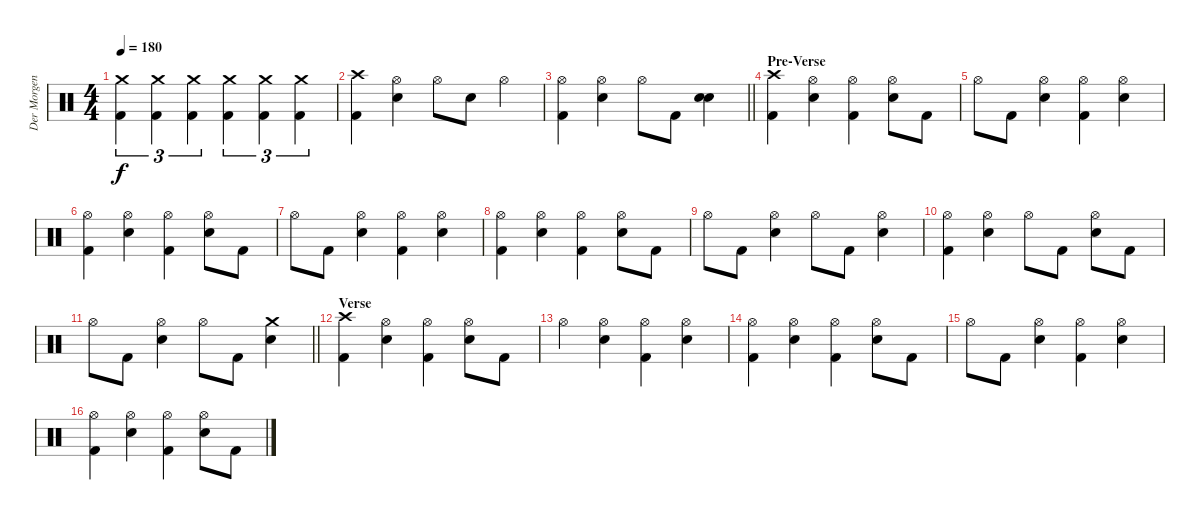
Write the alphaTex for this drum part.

\track ("Der Morgenstern" "Der Morgen") {instrument percussion}
\staff {score}
\articulation defaults
\ts (4 4)
\tempo 180
\clef neutral
\ks c
("Crash medium (hit)" "Kick (hit) 2").4{tu (3 2) dy f} ("Crash medium (hit)" "Kick (hit) 2").4{tu (3 2)} ("Crash medium (hit)" "Kick (hit) 2").4{tu (3 2)} ("Crash medium (hit)" "Kick (hit) 2").4{tu (3 2)} ("Crash medium (hit)" "Kick (hit) 2").4{tu (3 2)} ("Crash medium (hit)" "Kick (hit) 2").4{tu (3 2)} |
("Crash high (hit)" "Kick (hit) 2").4 ("Hi-Hat (open)" "Electric Snare (hit)").4 "Hi-Hat (open)".8 "Electric Snare (hit)".8 "Hi-Hat (open)".4 |
\barLineRight lightlight
("Hi-Hat (open)" "Kick (hit) 2").4 ("Hi-Hat (open)" "Electric Snare (hit)").4 "Hi-Hat (open)".8 "Kick (hit) 2".8 ("Electric Snare (hit)" "Electric Snare (hit)").4 |
\section ("" "Pre-Verse")
("Crash high (hit)" "Kick (hit) 2").4 ("Hi-Hat (open)" "Electric Snare (hit)").4 ("Hi-Hat (open)" "Kick (hit) 2").4 ("Hi-Hat (open)" "Electric Snare (hit)").8 "Kick (hit) 2".8 |
"Hi-Hat (open)".8 "Kick (hit) 2".8 ("Hi-Hat (open)" "Electric Snare (hit)").4 ("Hi-Hat (open)" "Kick (hit) 2").4 ("Hi-Hat (open)" "Electric Snare (hit)").4 |
("Hi-Hat (open)" "Kick (hit) 2").4 ("Hi-Hat (open)" "Electric Snare (hit)").4 ("Hi-Hat (open)" "Kick (hit) 2").4 ("Hi-Hat (open)" "Electric Snare (hit)").8 "Kick (hit) 2".8 |
"Hi-Hat (open)".8 "Kick (hit) 2".8 ("Hi-Hat (open)" "Electric Snare (hit)").4 ("Hi-Hat (open)" "Kick (hit) 2").4 ("Hi-Hat (open)" "Electric Snare (hit)").4 |
("Hi-Hat (open)" "Kick (hit) 2").4 ("Hi-Hat (open)" "Electric Snare (hit)").4 ("Hi-Hat (open)" "Kick (hit) 2").4 ("Hi-Hat (open)" "Electric Snare (hit)").8 "Kick (hit) 2".8 |
"Hi-Hat (open)".8 "Kick (hit) 2".8 ("Hi-Hat (open)" "Electric Snare (hit)").4 "Hi-Hat (open)".8 "Kick (hit) 2".8 ("Hi-Hat (open)" "Electric Snare (hit)").4 |
("Hi-Hat (open)" "Kick (hit) 2").4 ("Hi-Hat (open)" "Electric Snare (hit)").4 "Hi-Hat (open)".8 "Kick (hit) 2".8 ("Hi-Hat (open)" "Electric Snare (hit)").8 "Kick (hit) 2".8 |
\barLineRight lightlight "Hi-Hat (open)".8 "Kick (hit) 2".8
("Hi-Hat (open)" "Electric Snare (hit)").4 "Hi-Hat (open)".8 "Kick (hit) 2".8 ("Crash medium (hit)" "Electric Snare (hit)").4 |
\section ("" "Verse")
("Crash high (hit)" "Kick (hit) 2").4 ("Hi-Hat (open)" "Electric Snare (hit)").4 ("Hi-Hat (open)" "Kick (hit) 2").4 ("Hi-Hat (open)" "Electric Snare (hit)").8 "Kick (hit) 2".8 |
"Hi-Hat (open)".4 ("Hi-Hat (open)" "Electric Snare (hit)").4 ("Hi-Hat (open)" "Kick (hit) 2").4 ("Hi-Hat (open)" "Electric Snare (hit)").4 |
("Hi-Hat (open)" "Kick (hit) 2").4 ("Hi-Hat (open)" "Electric Snare (hit)").4 ("Hi-Hat (open)" "Kick (hit) 2").4 ("Hi-Hat (open)" "Electric Snare (hit)").8 "Kick (hit) 2".8 |
"Hi-Hat (open)".8 "Kick (hit) 2".8 ("Hi-Hat (open)" "Electric Snare (hit)").4 ("Hi-Hat (open)" "Kick (hit) 2").4 ("Hi-Hat (open)" "Electric Snare (hit)").4 |
("Hi-Hat (open)" "Kick (hit) 2").4 ("Hi-Hat (open)" "Electric Snare (hit)").4 ("Hi-Hat (open)" "Kick (hit) 2").4 ("Hi-Hat (open)" "Electric Snare (hit)").8 "Kick (hit) 2".8
